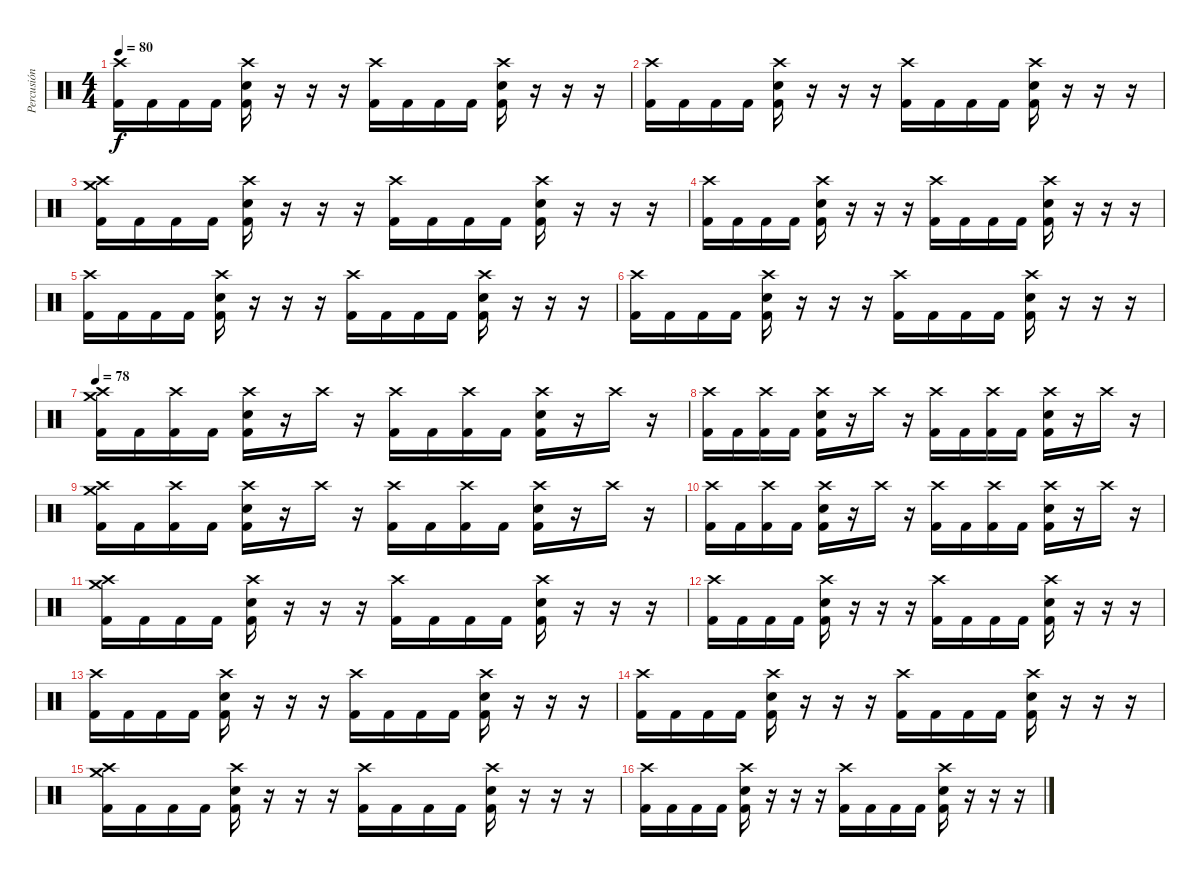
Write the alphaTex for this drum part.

\track ("Percusión" "Percusión") {instrument percussion}
\staff {score}
\articulation defaults
\ts (4 4)
\tempo 80
\clef neutral
\ks c
("Crash high (hit)" "Kick (hit) 2").16{dy f} "Kick (hit) 2".16 "Kick (hit) 2".16 "Kick (hit) 2".16 ("Crash high (hit)" "Snare (hit) 2" "Kick (hit) 2").16 r.16 r.16 r.16 ("Crash high (hit)" "Kick (hit) 2").16 "Kick (hit) 2".16 "Kick (hit) 2".16 "Kick (hit) 2".16 ("Crash high (hit)" "Snare (hit) 2" "Kick (hit) 2").16 r.16 r.16 r.16 |
("Crash high (hit)" "Kick (hit) 2").16 "Kick (hit) 2".16 "Kick (hit) 2".16 "Kick (hit) 2".16 ("Crash high (hit)" "Snare (hit) 2" "Kick (hit) 2").16 r.16 r.16 r.16 ("Crash high (hit)" "Kick (hit) 2").16 "Kick (hit) 2".16 "Kick (hit) 2".16 "Kick (hit) 2".16 ("Crash high (hit)" "Snare (hit) 2" "Kick (hit) 2").16 r.16 r.16 r.16 |
("Crash medium (hit)" "Crash high (hit)" "Kick (hit) 2").16 "Kick (hit) 2".16 "Kick (hit) 2".16 "Kick (hit) 2".16 ("Crash high (hit)" "Snare (hit) 2" "Kick (hit) 2").16 r.16 r.16 r.16 ("Crash high (hit)" "Kick (hit) 2").16 "Kick (hit) 2".16 "Kick (hit) 2".16 "Kick (hit) 2".16 ("Crash high (hit)" "Snare (hit) 2" "Kick (hit) 2").16 r.16 r.16 r.16 |
("Crash high (hit)" "Kick (hit) 2").16 "Kick (hit) 2".16 "Kick (hit) 2".16 "Kick (hit) 2".16 ("Crash high (hit)" "Snare (hit) 2" "Kick (hit) 2").16 r.16 r.16 r.16 ("Crash high (hit)" "Kick (hit) 2").16 "Kick (hit) 2".16 "Kick (hit) 2".16 "Kick (hit) 2".16 ("Crash high (hit)" "Snare (hit) 2" "Kick (hit) 2").16 r.16 r.16 r.16 |
("Crash high (hit)" "Kick (hit) 2").16 "Kick (hit) 2".16 "Kick (hit) 2".16 "Kick (hit) 2".16 ("Crash high (hit)" "Snare (hit) 2" "Kick (hit) 2").16 r.16 r.16 r.16 ("Crash high (hit)" "Kick (hit) 2").16 "Kick (hit) 2".16 "Kick (hit) 2".16 "Kick (hit) 2".16 ("Crash high (hit)" "Snare (hit) 2" "Kick (hit) 2").16 r.16 r.16 r.16 |
("Crash high (hit)" "Kick (hit) 2").16 "Kick (hit) 2".16 "Kick (hit) 2".16 "Kick (hit) 2".16 ("Crash high (hit)" "Snare (hit) 2" "Kick (hit) 2").16 r.16 r.16 r.16 ("Crash high (hit)" "Kick (hit) 2").16 "Kick (hit) 2".16 "Kick (hit) 2".16 "Kick (hit) 2".16 ("Crash high (hit)" "Snare (hit) 2" "Kick (hit) 2").16 r.16 r.16 r.16 |
\tempo 78
("Crash medium (hit)" "Crash high (hit)" "Kick (hit) 2").16 "Kick (hit) 2".16 ("Crash high (hit)" "Kick (hit) 2").16 "Kick (hit) 2".16 ("Crash high (hit)" "Snare (hit) 2" "Kick (hit) 2").16 r.16 "Crash high (hit)".16 r.16 ("Crash high (hit)" "Kick (hit) 2").16 "Kick (hit) 2".16 ("Crash high (hit)" "Kick (hit) 2").16 "Kick (hit) 2".16 ("Crash high (hit)" "Snare (hit) 2" "Kick (hit) 2").16 r.16 "Crash high (hit)".16 r.16 |
("Crash high (hit)" "Kick (hit) 2").16 "Kick (hit) 2".16 ("Crash high (hit)" "Kick (hit) 2").16 "Kick (hit) 2".16 ("Crash high (hit)" "Snare (hit) 2" "Kick (hit) 2").16 r.16 "Crash high (hit)".16 r.16 ("Crash high (hit)" "Kick (hit) 2").16 "Kick (hit) 2".16 ("Crash high (hit)" "Kick (hit) 2").16 "Kick (hit) 2".16 ("Crash high (hit)" "Snare (hit) 2" "Kick (hit) 2").16 r.16 "Crash high (hit)".16 r.16 |
("Crash medium (hit)" "Crash high (hit)" "Kick (hit) 2").16 "Kick (hit) 2".16 ("Crash high (hit)" "Kick (hit) 2").16 "Kick (hit) 2".16 ("Crash high (hit)" "Snare (hit) 2" "Kick (hit) 2").16 r.16 "Crash high (hit)".16 r.16 ("Crash high (hit)" "Kick (hit) 2").16 "Kick (hit) 2".16 ("Crash high (hit)" "Kick (hit) 2").16 "Kick (hit) 2".16 ("Crash high (hit)" "Snare (hit) 2" "Kick (hit) 2").16 r.16 "Crash high (hit)".16 r.16 |
("Crash high (hit)" "Kick (hit) 2").16 "Kick (hit) 2".16 ("Crash high (hit)" "Kick (hit) 2").16 "Kick (hit) 2".16 ("Crash high (hit)" "Snare (hit) 2" "Kick (hit) 2").16 r.16 "Crash high (hit)".16 r.16 ("Crash high (hit)" "Kick (hit) 2").16 "Kick (hit) 2".16 ("Crash high (hit)" "Kick (hit) 2").16 "Kick (hit) 2".16 ("Crash high (hit)" "Snare (hit) 2" "Kick (hit) 2").16 r.16 "Crash high (hit)".16 r.16 |
("Crash medium (hit)" "Crash high (hit)" "Kick (hit) 2").16 "Kick (hit) 2".16 "Kick (hit) 2".16 "Kick (hit) 2".16 ("Crash high (hit)" "Snare (hit) 2" "Kick (hit) 2").16 r.16 r.16 r.16 ("Crash high (hit)" "Kick (hit) 2").16 "Kick (hit) 2".16 "Kick (hit) 2".16 "Kick (hit) 2".16 ("Crash high (hit)" "Snare (hit) 2" "Kick (hit) 2").16 r.16 r.16 r.16 |
("Crash high (hit)" "Kick (hit) 2").16 "Kick (hit) 2".16 "Kick (hit) 2".16 "Kick (hit) 2".16 ("Crash high (hit)" "Snare (hit) 2" "Kick (hit) 2").16 r.16 r.16 r.16 ("Crash high (hit)" "Kick (hit) 2").16 "Kick (hit) 2".16 "Kick (hit) 2".16 "Kick (hit) 2".16 ("Crash high (hit)" "Snare (hit) 2" "Kick (hit) 2").16 r.16 r.16 r.16 |
("Crash high (hit)" "Kick (hit) 2").16 "Kick (hit) 2".16 "Kick (hit) 2".16 "Kick (hit) 2".16 ("Crash high (hit)" "Snare (hit) 2" "Kick (hit) 2").16 r.16 r.16 r.16 ("Crash high (hit)" "Kick (hit) 2").16 "Kick (hit) 2".16 "Kick (hit) 2".16 "Kick (hit) 2".16 ("Crash high (hit)" "Snare (hit) 2" "Kick (hit) 2").16 r.16 r.16 r.16 |
("Crash high (hit)" "Kick (hit) 2").16 "Kick (hit) 2".16 "Kick (hit) 2".16 "Kick (hit) 2".16 ("Crash high (hit)" "Snare (hit) 2" "Kick (hit) 2").16 r.16 r.16 r.16 ("Crash high (hit)" "Kick (hit) 2").16 "Kick (hit) 2".16 "Kick (hit) 2".16 "Kick (hit) 2".16 ("Crash high (hit)" "Snare (hit) 2" "Kick (hit) 2").16 r.16 r.16 r.16 |
("Crash medium (hit)" "Crash high (hit)" "Kick (hit) 2").16 "Kick (hit) 2".16 "Kick (hit) 2".16 "Kick (hit) 2".16 ("Crash high (hit)" "Snare (hit) 2" "Kick (hit) 2").16 r.16 r.16 r.16 ("Crash high (hit)" "Kick (hit) 2").16 "Kick (hit) 2".16 "Kick (hit) 2".16 "Kick (hit) 2".16 ("Crash high (hit)" "Snare (hit) 2" "Kick (hit) 2").16 r.16 r.16 r.16 |
("Crash high (hit)" "Kick (hit) 2").16 "Kick (hit) 2".16 "Kick (hit) 2".16 "Kick (hit) 2".16 ("Crash high (hit)" "Snare (hit) 2" "Kick (hit) 2").16 r.16 r.16 r.16 ("Crash high (hit)" "Kick (hit) 2").16 "Kick (hit) 2".16 "Kick (hit) 2".16 "Kick (hit) 2".16 ("Crash high (hit)" "Snare (hit) 2" "Kick (hit) 2").16 r.16 r.16 r.16
